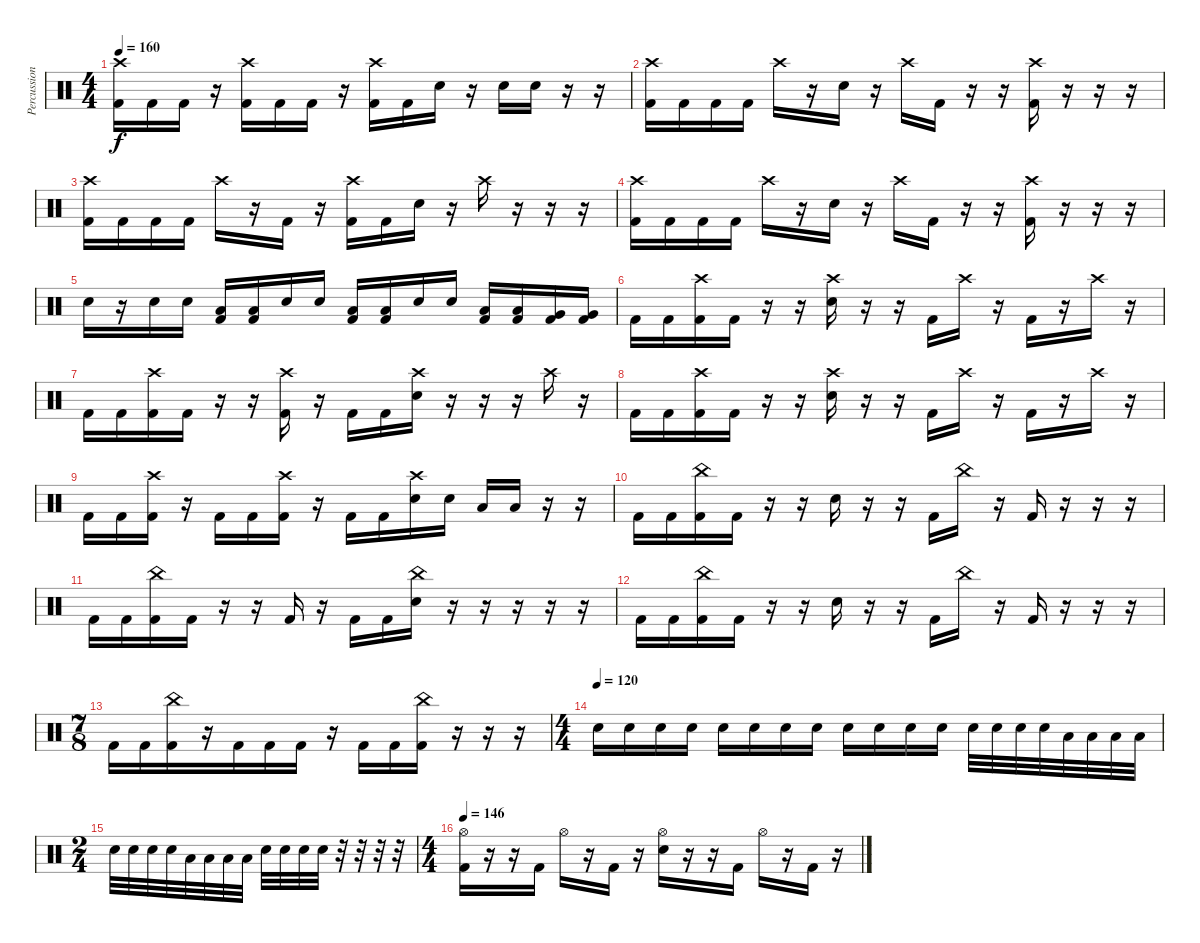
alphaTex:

\track ("Percussion" "Percussion") {instrument percussion}
\staff {score}
\articulation defaults
\ts (4 4)
\tempo 160
\clef neutral
\ks c
("Crash high (hit)" "Kick (hit) 2").16{dy f} "Kick (hit) 2".16 "Kick (hit) 2".16 r.16 ("Crash high (hit)" "Kick (hit) 2").16 "Kick (hit) 2".16 "Kick (hit) 2".16 r.16 ("Crash high (hit)" "Kick (hit) 2").16 "Kick (hit) 2".16 "Electric Snare (hit)".16 r.16 "Electric Snare (hit)".16 "Electric Snare (hit)".16 r.16 r.16 |
("Crash high (hit)" "Kick (hit) 2").16 "Kick (hit) 2".16 "Kick (hit) 2".16 "Kick (hit) 2".16 "Crash high (hit)".16 r.16 "Electric Snare (hit)".16 r.16 "Crash high (hit)".16 "Kick (hit) 2".16 r.16 r.16 ("Crash high (hit)" "Kick (hit) 2").16 r.16 r.16 r.16 |
("Crash high (hit)" "Kick (hit) 2").16 "Kick (hit) 2".16 "Kick (hit) 2".16 "Kick (hit) 2".16 "Crash high (hit)".16 r.16 "Kick (hit) 2".16 r.16 ("Crash high (hit)" "Kick (hit) 2").16 "Kick (hit) 2".16 "Electric Snare (hit)".16 r.16 "Crash high (hit)".16 r.16 r.16 r.16 |
("Crash high (hit)" "Kick (hit) 2").16 "Kick (hit) 2".16 "Kick (hit) 2".16 "Kick (hit) 2".16 "Crash high (hit)".16 r.16 "Electric Snare (hit)".16 r.16 "Crash high (hit)".16 "Kick (hit) 2".16 r.16 r.16 ("Crash high (hit)" "Kick (hit) 2").16 r.16 r.16 r.16 |
"Electric Snare (hit)".16 r.16 "Electric Snare (hit)".16 "Electric Snare (hit)".16 ("Low Tom (hit)" "Kick (hit) 2").16 ("Low Tom (hit)" "Kick (hit) 2").16 "Electric Snare (hit)".16 "Electric Snare (hit)".16 ("Low Tom (hit)" "Kick (hit) 2").16 ("Low Tom (hit)" "Kick (hit) 2").16 "Electric Snare (hit)".16 "Electric Snare (hit)".16 ("Low Tom (hit)" "Kick (hit) 2").16 ("Low Tom (hit)" "Kick (hit) 2").16 ("Very Low Tom (hit)" "Kick (hit) 2").16 ("Very Low Tom (hit)" "Kick (hit) 2").16 |
"Kick (hit) 2".16 "Kick (hit) 2".16 ("Crash high (hit)" "Kick (hit) 2").16 "Kick (hit) 2".16 r.16 r.16 ("Crash high (hit)" "Electric Snare (hit)").16 r.16 r.16 "Kick (hit) 2".16 "Crash high (hit)".16 r.16 "Kick (hit) 2".16 r.16 "Crash high (hit)".16 r.16 |
"Kick (hit) 2".16 "Kick (hit) 2".16 ("Crash high (hit)" "Kick (hit) 2").16 "Kick (hit) 2".16 r.16 r.16 ("Crash high (hit)" "Kick (hit) 2").16 r.16 "Kick (hit) 2".16 "Kick (hit) 2".16 ("Crash high (hit)" "Electric Snare (hit)").16 r.16 r.16 r.16 "Crash high (hit)".16 r.16 |
"Kick (hit) 2".16 "Kick (hit) 2".16 ("Crash high (hit)" "Kick (hit) 2").16 "Kick (hit) 2".16 r.16 r.16 ("Crash high (hit)" "Electric Snare (hit)").16 r.16 r.16 "Kick (hit) 2".16 "Crash high (hit)".16 r.16 "Kick (hit) 2".16 r.16 "Crash high (hit)".16 r.16 |
"Kick (hit) 2".16 "Kick (hit) 2".16 ("Crash high (hit)" "Kick (hit) 2").16 r.16 "Kick (hit) 2".16 "Kick (hit) 2".16 ("Crash high (hit)" "Kick (hit) 2").16 r.16 "Kick (hit) 2".16 "Kick (hit) 2".16 ("Crash high (hit)" "Electric Snare (hit)").16 "Electric Snare (hit)".16 "Low Tom (hit)".16 "Low Tom (hit)".16 r.16 r.16 |
"Kick (hit) 2".16 "Kick (hit) 2".16 ("China (hit)" "Kick (hit) 2").16 "Kick (hit) 2".16 r.16 r.16 "Electric Snare (hit)".16 r.16 r.16 "Kick (hit) 2".16 "China (hit)".16 r.16 "Kick (hit) 2".16 r.16 r.16 r.16 |
"Kick (hit) 2".16 "Kick (hit) 2".16 ("China (hit)" "Kick (hit) 2").16 "Kick (hit) 2".16 r.16 r.16 "Kick (hit) 2".16 r.16 "Kick (hit) 2".16 "Kick (hit) 2".16 ("China (hit)" "Electric Snare (hit)").16 r.16 r.16 r.16 r.16 r.16 |
"Kick (hit) 2".16 "Kick (hit) 2".16 ("China (hit)" "Kick (hit) 2").16 "Kick (hit) 2".16 r.16 r.16 "Electric Snare (hit)".16 r.16 r.16 "Kick (hit) 2".16 "China (hit)".16 r.16 "Kick (hit) 2".16 r.16 r.16 r.16 |
\ts (7 8)
"Kick (hit) 2".16 "Kick (hit) 2".16 ("China (hit)" "Kick (hit) 2").16 r.16 "Kick (hit) 2".16 "Kick (hit) 2".16 "Kick (hit) 2".16 r.16 "Kick (hit) 2".16 "Kick (hit) 2".16 ("China (hit)" "Kick (hit) 2").16 r.16 r.16 r.16 |
\ts (4 4)
\tempo (120)
"Electric Snare (hit)".16 "Electric Snare (hit)".16 "Electric Snare (hit)".16 "Electric Snare (hit)".16 "Electric Snare (hit)".16 "Electric Snare (hit)".16 "Electric Snare (hit)".16 "Electric Snare (hit)".16 "Electric Snare (hit)".16 "Electric Snare (hit)".16 "Electric Snare (hit)".16 "Electric Snare (hit)".16 "Electric Snare (hit)".32 "Electric Snare (hit)".32 "Electric Snare (hit)".32 "Electric Snare (hit)".32 "Low Tom (hit)".32 "Low Tom (hit)".32 "Low Tom (hit)".32 "Low Tom (hit)".32 |
\ts (2 4)
"Electric Snare (hit)".32 "Electric Snare (hit)".32 "Electric Snare (hit)".32 "Electric Snare (hit)".32 "Low Tom (hit)".32 "Low Tom (hit)".32 "Low Tom (hit)".32 "Low Tom (hit)".32 "Electric Snare (hit)".32 "Electric Snare (hit)".32 "Electric Snare (hit)".32 "Electric Snare (hit)".32 r.32 r.32 r.32 r.32 |
\ts (4 4)
\tempo 146
("Hi-Hat (open)" "Kick (hit) 2").16 r.16 r.16 "Kick (hit) 2".16 "Hi-Hat (open)".16 r.16 "Kick (hit) 2".16 r.16 ("Hi-Hat (open)" "Electric Snare (hit)").16 r.16 r.16 "Kick (hit) 2".16 "Hi-Hat (open)".16 r.16 "Kick (hit) 2".16 r.16
